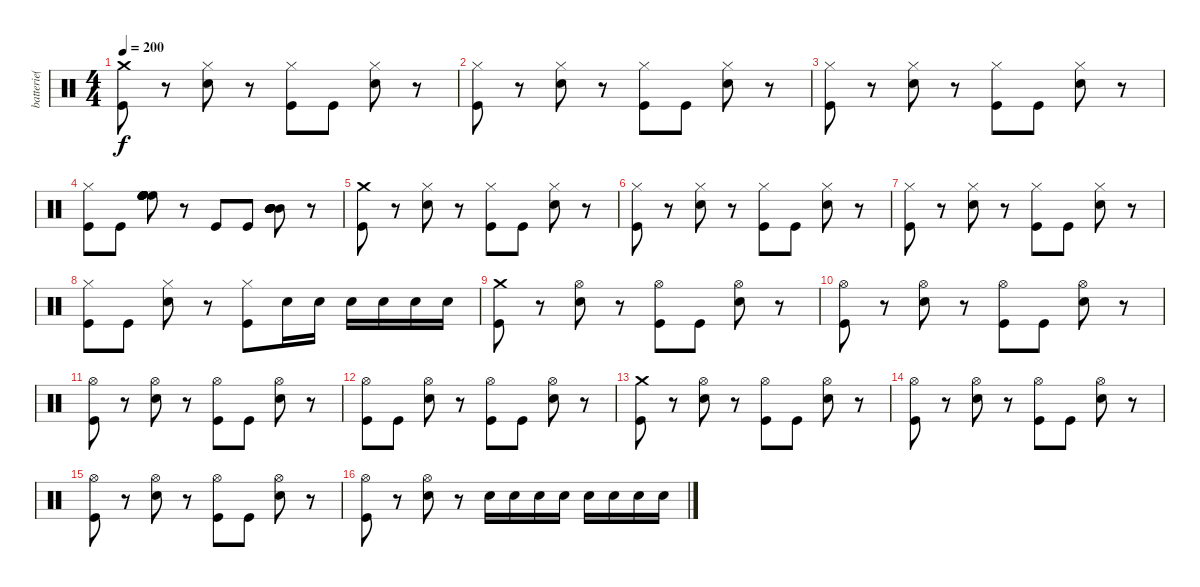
\track ("batterie( Meggers )" "batterie( ") {instrument percussion}
\staff {score}
\articulation defaults
\ts (4 4)
\tempo 200
\clef neutral
\ks c
("Crash medium (hit)" "Kick (hit)").8{dy f} r.8 ("Hi-Hat (closed)" "Snare (hit) 2").8 r.8 ("Hi-Hat (closed)" "Kick (hit)").8 "Kick (hit)".8 ("Hi-Hat (closed)" "Snare (hit) 2").8 r.8 |
("Hi-Hat (closed)" "Kick (hit)").8 r.8 ("Hi-Hat (closed)" "Snare (hit) 2").8 r.8 ("Hi-Hat (closed)" "Kick (hit)").8 "Kick (hit)".8 ("Hi-Hat (closed)" "Snare (hit) 2").8 r.8 |
("Hi-Hat (closed)" "Kick (hit)").8 r.8 ("Hi-Hat (closed)" "Snare (hit) 2").8 r.8 ("Hi-Hat (closed)" "Kick (hit)").8 "Kick (hit)".8 ("Hi-Hat (closed)" "Snare (hit) 2").8 r.8 |
("Hi-Hat (closed)" "Kick (hit)").8 "Kick (hit)".8 ("High Floor Tom (hit)" "High Floor Tom (hit)" "High Floor Tom (hit)" "High Floor Tom (hit)" "High Floor Tom (hit)" "High Floor Tom (hit)").8{volume 16} r.8{volume 14} "Kick (hit)".8 "Kick (hit)".8 ("Mid Tom (hit)" "Mid Tom (hit)" "Mid Tom (hit)" "Mid Tom (hit)" "Mid Tom (hit)" "Mid Tom (hit)").8{volume 16} r.8{volume 14} |
("Crash medium (hit)" "Kick (hit)").8 r.8 ("Hi-Hat (closed)" "Snare (hit) 2").8 r.8 ("Hi-Hat (closed)" "Kick (hit)").8 "Kick (hit)".8 ("Hi-Hat (closed)" "Snare (hit) 2").8 r.8 |
("Hi-Hat (closed)" "Kick (hit)").8 r.8 ("Hi-Hat (closed)" "Snare (hit) 2").8 r.8 ("Hi-Hat (closed)" "Kick (hit)").8 "Kick (hit)".8 ("Hi-Hat (closed)" "Snare (hit) 2").8 r.8 |
("Hi-Hat (closed)" "Kick (hit)").8 r.8 ("Hi-Hat (closed)" "Snare (hit) 2").8 r.8 ("Hi-Hat (closed)" "Kick (hit)").8 "Kick (hit)".8 ("Hi-Hat (closed)" "Snare (hit) 2").8 r.8 |
("Hi-Hat (closed)" "Kick (hit)").8 "Kick (hit)".8 ("Hi-Hat (closed)" "Snare (hit) 2").8 r.8 ("Hi-Hat (closed)" "Kick (hit)").8 "Snare (hit) 2".16 "Snare (hit) 2".16 "Snare (hit) 2".16 "Snare (hit) 2".16 "Snare (hit) 2".16 "Snare (hit) 2".16 |
("Crash medium (hit)" "Kick (hit)").8 r.8 ("Hi-Hat (open)" "Snare (hit) 2").8 r.8 ("Hi-Hat (open)" "Kick (hit)").8 "Kick (hit)".8 ("Hi-Hat (open)" "Snare (hit) 2").8 r.8 |
("Hi-Hat (open)" "Kick (hit)").8 r.8 ("Hi-Hat (open)" "Snare (hit) 2").8 r.8 ("Hi-Hat (open)" "Kick (hit)").8 "Kick (hit)".8 ("Hi-Hat (open)" "Snare (hit) 2").8 r.8 |
("Hi-Hat (open)" "Kick (hit)").8 r.8 ("Hi-Hat (open)" "Snare (hit) 2").8 r.8 ("Hi-Hat (open)" "Kick (hit)").8 "Kick (hit)".8 ("Hi-Hat (open)" "Snare (hit) 2").8 r.8 |
("Hi-Hat (open)" "Kick (hit)").8 "Kick (hit)".8 ("Hi-Hat (open)" "Snare (hit) 2").8 r.8 ("Hi-Hat (open)" "Kick (hit)").8 "Kick (hit)".8 ("Hi-Hat (open)" "Snare (hit) 2").8 r.8 |
("Crash medium (hit)" "Kick (hit)").8 r.8 ("Hi-Hat (open)" "Snare (hit) 2").8 r.8 ("Hi-Hat (open)" "Kick (hit)").8 "Kick (hit)".8 ("Hi-Hat (open)" "Snare (hit) 2").8 r.8 |
("Hi-Hat (open)" "Kick (hit)").8 r.8 ("Hi-Hat (open)" "Snare (hit) 2").8 r.8 ("Hi-Hat (open)" "Kick (hit)").8 "Kick (hit)".8 ("Hi-Hat (open)" "Snare (hit) 2").8 r.8 |
("Hi-Hat (open)" "Kick (hit)").8 r.8 ("Hi-Hat (open)" "Snare (hit) 2").8 r.8 ("Hi-Hat (open)" "Kick (hit)").8 "Kick (hit)".8 ("Hi-Hat (open)" "Snare (hit) 2").8 r.8 |
("Hi-Hat (open)" "Kick (hit)").8 r.8 ("Hi-Hat (open)" "Snare (hit) 2").8 r.8 "Snare (hit) 2".16 "Snare (hit) 2".16 "Snare (hit) 2".16 "Snare (hit) 2".16 "Snare (hit) 2".16 "Snare (hit) 2".16 "Snare (hit) 2".16 "Snare (hit) 2".16
